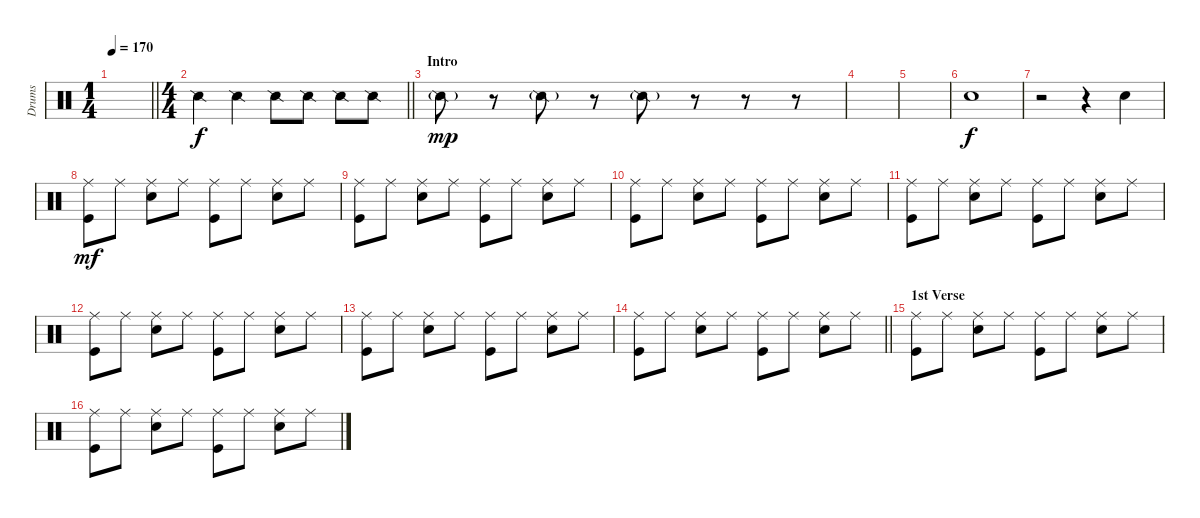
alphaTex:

\track ("Drums" "Drums") {instrument percussion}
\staff {score}
\articulation defaults
\ts (1 4)
\tempo 170
\clef neutral
\barLineRight lightlight
\ks c
|
\ts (4 4)
\barLineRight lightlight "Snare (side stick) 2".4 "Snare (side stick) 2".4 "Snare (side stick) 2".8 "Snare (side stick) 2".8 "Snare (side stick) 2".8 "Snare (side stick) 2".8
|
\section ("" "Intro")
"Snare (side stick) 2"{g}.8{dy mp} r.8 "Snare (side stick) 2"{g}.8 r.8 "Snare (side stick) 2"{g}.8 r.8 r.8 r.8 |
|
|
"Snare (hit) 2".1{dy f} |
r.2 r.4 "Snare (hit) 2".4 |
("Ride (middle)" "Kick (hit)").8{dy mf} "Ride (middle)".8 ("Ride (middle)" "Snare (hit) 2").8 "Ride (middle)".8 ("Ride (middle)" "Kick (hit)").8 "Ride (middle)".8 ("Ride (middle)" "Snare (hit) 2").8 "Ride (middle)".8 |
("Ride (middle)" "Kick (hit)").8 "Ride (middle)".8 ("Ride (middle)" "Snare (hit) 2").8 "Ride (middle)".8 ("Ride (middle)" "Kick (hit)").8 "Ride (middle)".8 ("Ride (middle)" "Snare (hit) 2").8 "Ride (middle)".8 |
("Ride (middle)" "Kick (hit)").8 "Ride (middle)".8 ("Ride (middle)" "Snare (hit) 2").8 "Ride (middle)".8 ("Ride (middle)" "Kick (hit)").8 "Ride (middle)".8 ("Ride (middle)" "Snare (hit) 2").8 "Ride (middle)".8 |
("Ride (middle)" "Kick (hit)").8 "Ride (middle)".8 ("Ride (middle)" "Snare (hit) 2").8 "Ride (middle)".8 ("Ride (middle)" "Kick (hit)").8 "Ride (middle)".8 ("Ride (middle)" "Snare (hit) 2").8 "Ride (middle)".8 |
("Ride (middle)" "Kick (hit)").8 "Ride (middle)".8 ("Ride (middle)" "Snare (hit) 2").8 "Ride (middle)".8 ("Ride (middle)" "Kick (hit)").8 "Ride (middle)".8 ("Ride (middle)" "Snare (hit) 2").8 "Ride (middle)".8 |
("Ride (middle)" "Kick (hit)").8 "Ride (middle)".8 ("Ride (middle)" "Snare (hit) 2").8 "Ride (middle)".8 ("Ride (middle)" "Kick (hit)").8 "Ride (middle)".8 ("Ride (middle)" "Snare (hit) 2").8 "Ride (middle)".8 |
\barLineRight lightlight
("Ride (middle)" "Kick (hit)").8 "Ride (middle)".8 ("Ride (middle)" "Snare (hit) 2").8 "Ride (middle)".8 ("Ride (middle)" "Kick (hit)").8 "Ride (middle)".8 ("Ride (middle)" "Snare (hit) 2").8 "Ride (middle)".8 |
\section ("" "1st Verse")
("Ride (middle)" "Kick (hit)").8 "Ride (middle)".8 ("Ride (middle)" "Snare (hit) 2").8 "Ride (middle)".8 ("Ride (middle)" "Kick (hit)").8 "Ride (middle)".8 ("Ride (middle)" "Snare (hit) 2").8 "Ride (middle)".8 |
("Ride (middle)" "Kick (hit)").8 "Ride (middle)".8 ("Ride (middle)" "Snare (hit) 2").8 "Ride (middle)".8 ("Ride (middle)" "Kick (hit)").8 "Ride (middle)".8 ("Ride (middle)" "Snare (hit) 2").8 "Ride (middle)".8
